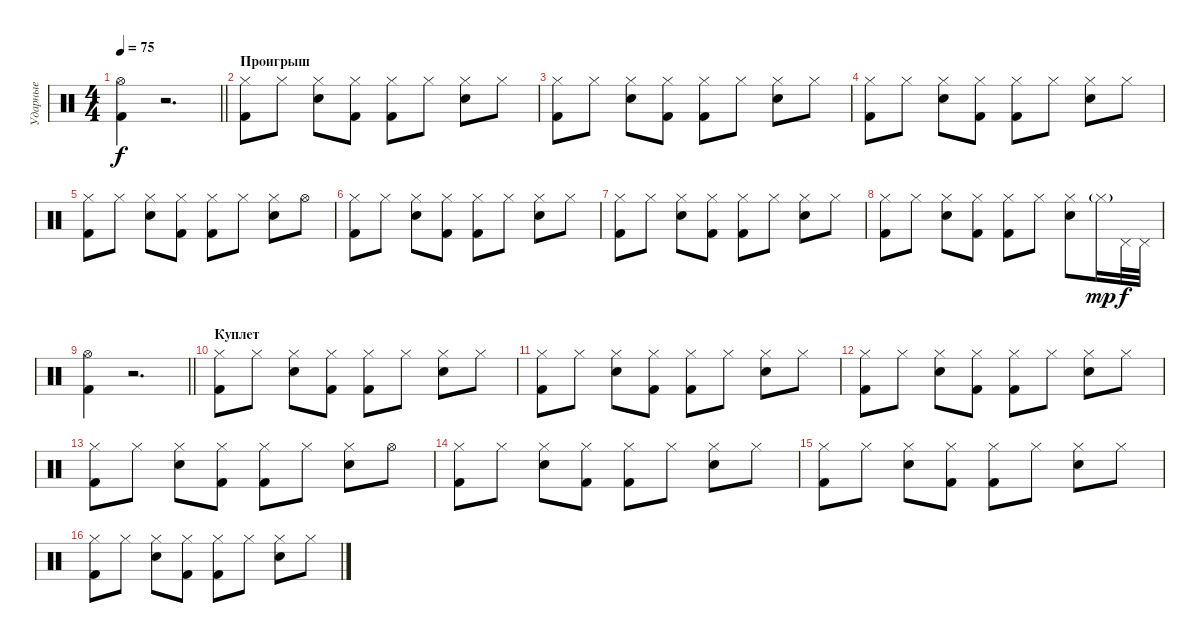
\track ("Ударные" "Ударные") {instrument percussion}
\staff {score}
\articulation defaults
\ts (4 4)
\tempo 75
\clef neutral
\barLineRight lightlight
\ks c
("Kick (hit) 2" "Hi-Hat (open)").4{dy f} r.2{d} |
\section ("" "Проигрыш")
("Hi-Hat (closed)" "Kick (hit) 2").8 "Hi-Hat (closed)".8 ("Electric Snare (hit)" "Hi-Hat (closed)").8 ("Hi-Hat (closed)" "Kick (hit) 2").8 ("Hi-Hat (closed)" "Kick (hit) 2").8 "Hi-Hat (closed)".8 ("Electric Snare (hit)" "Hi-Hat (closed)").8 "Hi-Hat (closed)".8 |
("Hi-Hat (closed)" "Kick (hit) 2").8 "Hi-Hat (closed)".8 ("Electric Snare (hit)" "Hi-Hat (closed)").8 ("Hi-Hat (closed)" "Kick (hit) 2").8 ("Hi-Hat (closed)" "Kick (hit) 2").8 "Hi-Hat (closed)".8 ("Electric Snare (hit)" "Hi-Hat (closed)").8 "Hi-Hat (closed)".8 |
("Hi-Hat (closed)" "Kick (hit) 2").8 "Hi-Hat (closed)".8 ("Electric Snare (hit)" "Hi-Hat (closed)").8 ("Hi-Hat (closed)" "Kick (hit) 2").8 ("Hi-Hat (closed)" "Kick (hit) 2").8 "Hi-Hat (closed)".8 ("Electric Snare (hit)" "Hi-Hat (closed)").8 "Hi-Hat (closed)".8 |
("Hi-Hat (closed)" "Kick (hit) 2").8 "Hi-Hat (closed)".8 ("Electric Snare (hit)" "Hi-Hat (closed)").8 ("Hi-Hat (closed)" "Kick (hit) 2").8 ("Hi-Hat (closed)" "Kick (hit) 2").8 "Hi-Hat (closed)".8 ("Electric Snare (hit)" "Hi-Hat (closed)").8 "Hi-Hat (open)".8 |
("Hi-Hat (closed)" "Kick (hit) 2").8 "Hi-Hat (closed)".8 ("Electric Snare (hit)" "Hi-Hat (closed)").8 ("Hi-Hat (closed)" "Kick (hit) 2").8 ("Hi-Hat (closed)" "Kick (hit) 2").8 "Hi-Hat (closed)".8 ("Electric Snare (hit)" "Hi-Hat (closed)").8 "Hi-Hat (closed)".8 |
("Hi-Hat (closed)" "Kick (hit) 2").8 "Hi-Hat (closed)".8 ("Electric Snare (hit)" "Hi-Hat (closed)").8 ("Hi-Hat (closed)" "Kick (hit) 2").8 ("Hi-Hat (closed)" "Kick (hit) 2").8 "Hi-Hat (closed)".8 ("Electric Snare (hit)" "Hi-Hat (closed)").8 "Hi-Hat (closed)".8 |
("Hi-Hat (closed)" "Kick (hit) 2").8 "Hi-Hat (closed)".8 ("Electric Snare (hit)" "Hi-Hat (closed)").8 ("Hi-Hat (closed)" "Kick (hit) 2").8 ("Hi-Hat (closed)" "Kick (hit) 2").8 "Hi-Hat (closed)".8 ("Electric Snare (hit)" "Hi-Hat (closed)").8 "Hi-Hat (closed)"{g}.16{dy mp} "Pedal Hi-Hat (hit)".32{dy f} "Pedal Hi-Hat (hit)".32 |
\barLineRight lightlight
("Kick (hit) 2" "Hi-Hat (open)").4 r.2{d} |
\section ("" "Куплет")
("Hi-Hat (closed)" "Kick (hit) 2").8 "Hi-Hat (closed)".8 ("Electric Snare (hit)" "Hi-Hat (closed)").8 ("Hi-Hat (closed)" "Kick (hit) 2").8 ("Hi-Hat (closed)" "Kick (hit) 2").8 "Hi-Hat (closed)".8 ("Electric Snare (hit)" "Hi-Hat (closed)").8 "Hi-Hat (closed)".8 |
("Hi-Hat (closed)" "Kick (hit) 2").8 "Hi-Hat (closed)".8 ("Electric Snare (hit)" "Hi-Hat (closed)").8 ("Hi-Hat (closed)" "Kick (hit) 2").8 ("Hi-Hat (closed)" "Kick (hit) 2").8 "Hi-Hat (closed)".8 ("Electric Snare (hit)" "Hi-Hat (closed)").8 "Hi-Hat (closed)".8 |
("Hi-Hat (closed)" "Kick (hit) 2").8 "Hi-Hat (closed)".8 ("Electric Snare (hit)" "Hi-Hat (closed)").8 ("Hi-Hat (closed)" "Kick (hit) 2").8 ("Hi-Hat (closed)" "Kick (hit) 2").8 "Hi-Hat (closed)".8 ("Electric Snare (hit)" "Hi-Hat (closed)").8 "Hi-Hat (closed)".8 |
("Hi-Hat (closed)" "Kick (hit) 2").8 "Hi-Hat (closed)".8 ("Electric Snare (hit)" "Hi-Hat (closed)").8 ("Hi-Hat (closed)" "Kick (hit) 2").8 ("Hi-Hat (closed)" "Kick (hit) 2").8 "Hi-Hat (closed)".8 ("Electric Snare (hit)" "Hi-Hat (closed)").8 "Hi-Hat (open)".8 |
("Hi-Hat (closed)" "Kick (hit) 2").8 "Hi-Hat (closed)".8 ("Electric Snare (hit)" "Hi-Hat (closed)").8 ("Hi-Hat (closed)" "Kick (hit) 2").8 ("Hi-Hat (closed)" "Kick (hit) 2").8 "Hi-Hat (closed)".8 ("Electric Snare (hit)" "Hi-Hat (closed)").8 "Hi-Hat (closed)".8 |
("Hi-Hat (closed)" "Kick (hit) 2").8 "Hi-Hat (closed)".8 ("Electric Snare (hit)" "Hi-Hat (closed)").8 ("Hi-Hat (closed)" "Kick (hit) 2").8 ("Hi-Hat (closed)" "Kick (hit) 2").8 "Hi-Hat (closed)".8 ("Electric Snare (hit)" "Hi-Hat (closed)").8 "Hi-Hat (closed)".8 |
("Hi-Hat (closed)" "Kick (hit) 2").8 "Hi-Hat (closed)".8 ("Electric Snare (hit)" "Hi-Hat (closed)").8 ("Hi-Hat (closed)" "Kick (hit) 2").8 ("Hi-Hat (closed)" "Kick (hit) 2").8 "Hi-Hat (closed)".8 ("Electric Snare (hit)" "Hi-Hat (closed)").8 "Hi-Hat (closed)".8
